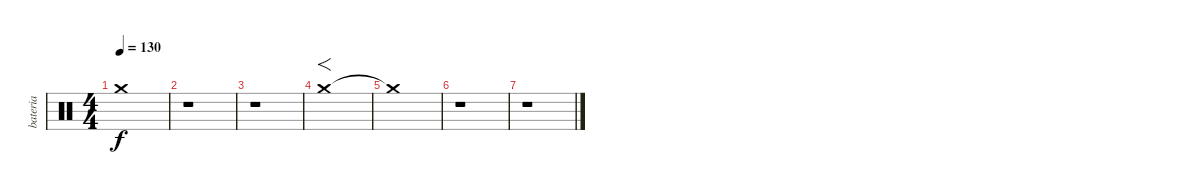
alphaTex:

\track ("bateria" "bateria") {instrument percussion}
\staff {score}
\articulation defaults
\ts (4 4)
\tempo 130
\clef neutral
\ks c "Crash medium (hit)"{t}.1{dy f}
|
r.1 |
r.1 |
"Crash medium (hit)".1{f} |
"Crash medium (hit)"{t}.1 |
r.1 |
r.1
